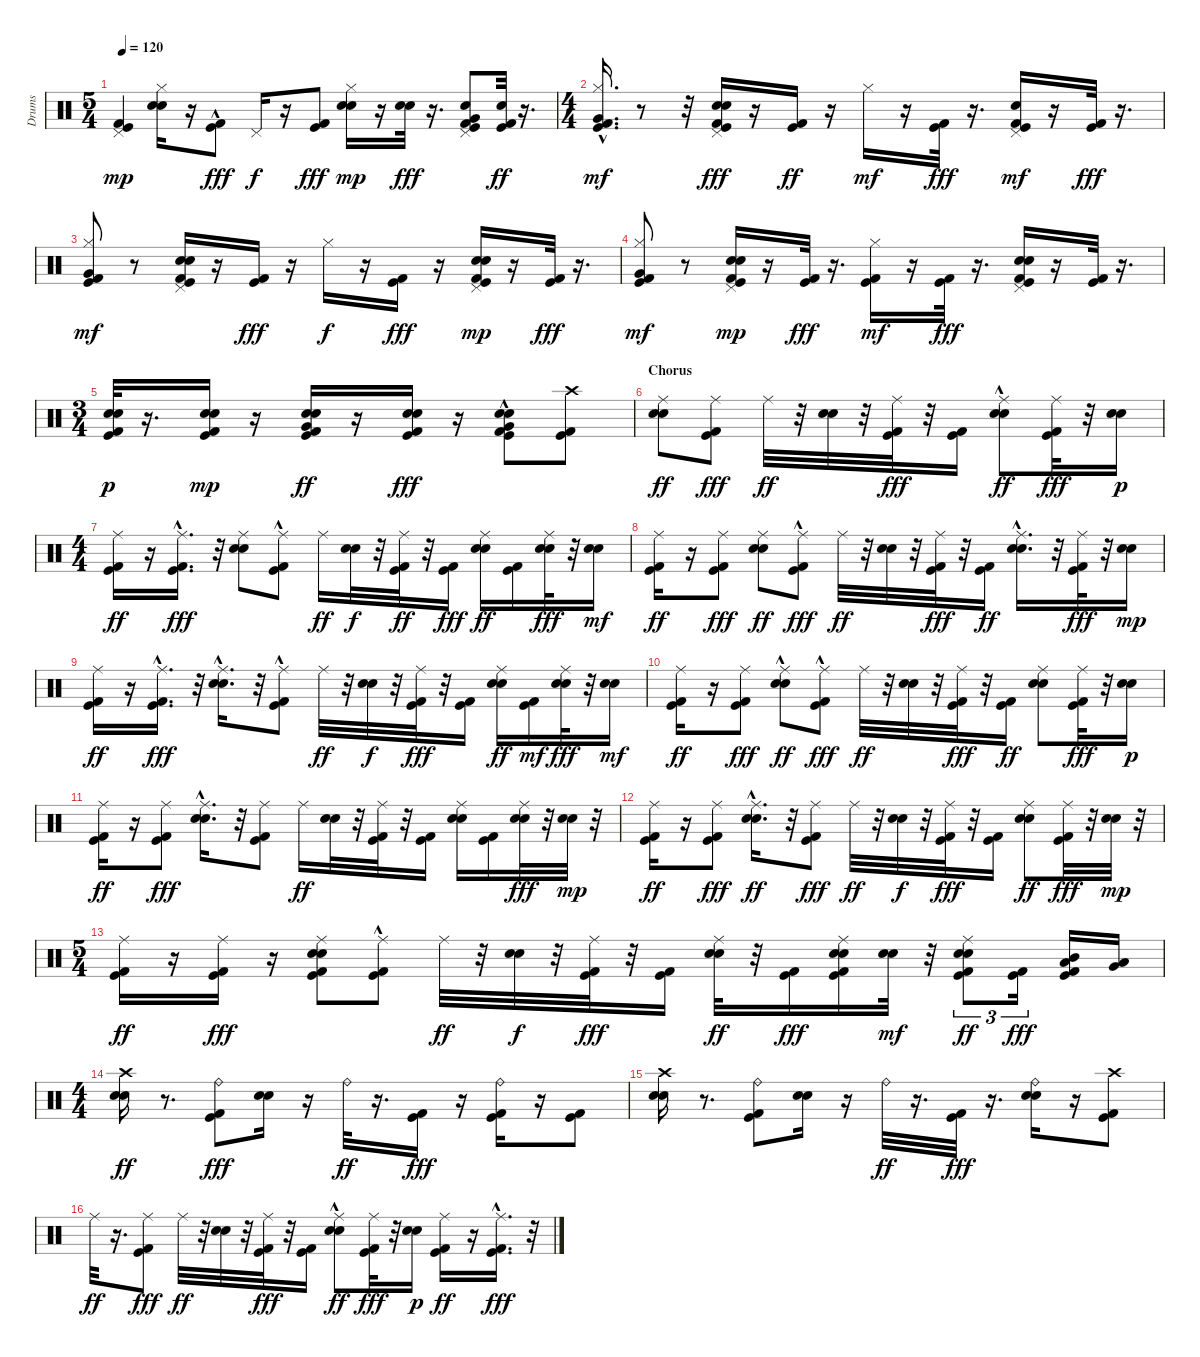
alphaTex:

\track ("Drums" "Drums") {instrument percussion}
\staff {score}
\articulation defaults
\ts (5 4)
\tempo 120
\clef neutral
\ks c
("Kick (hit) 2" "Kick (hit)" "Pedal Hi-Hat (hit)").4{dy mp} ("Snare (hit) 2" "Electric Snare (hit)" "Hi-Hat (closed)").16 r.16 ("Kick (hit) 2"{hac} "Kick (hit)").8{dy fff} "Pedal Hi-Hat (hit)".16{dy f} r.16 ("Kick (hit)" "Kick (hit) 2").8{dy fff} ("Snare (hit) 2" "Electric Snare (hit)" "Hi-Hat (closed)").16{dy mp} r.16 ("Snare (hit) 2" "Electric Snare (hit)").32{dy fff} r.16{d} ("Kick (hit)" "Kick (hit) 2" "Snare (hit) 2" "Very Low Tom (hit)" "Pedal Hi-Hat (hit)").8 ("Kick (hit) 2" "Kick (hit)" "Snare (hit) 2").32{dy ff} r.16{d} |
\ts (4 4)
("Very Low Tom (hit)" "Kick (hit) 2"{hac} "Kick (hit)"{hac} "Hi-Hat (closed)").16{d dy mf} r.8 r.32 ("Electric Snare (hit)" "Snare (hit) 2" "Kick (hit) 2" "Kick (hit)" "Pedal Hi-Hat (hit)").16{dy fff} r.16 ("Kick (hit)" "Kick (hit) 2").16{dy ff} r.16 "Hi-Hat (closed)".16{dy mf} r.16 ("Kick (hit) 2" "Kick (hit)").32{dy fff} r.16{d} ("Snare (hit) 2" "Kick (hit)" "Kick (hit) 2" "Pedal Hi-Hat (hit)").16{dy mf} r.16 ("Kick (hit)" "Kick (hit) 2").32{dy fff} r.16{d} |
("Very Low Tom (hit)" "Kick (hit)" "Kick (hit) 2" "Hi-Hat (closed)").8{dy mf} r.8 ("Electric Snare (hit)" "Snare (hit) 2" "Kick (hit)" "Kick (hit) 2" "Pedal Hi-Hat (hit)").16 r.16 ("Kick (hit)" "Kick (hit) 2").16{dy fff} r.16 "Hi-Hat (closed)".16{dy f} r.16 ("Kick (hit) 2" "Kick (hit)").16{dy fff} r.16 ("Snare (hit) 2" "Electric Snare (hit)" "Kick (hit) 2" "Kick (hit)" "Pedal Hi-Hat (hit)").16{dy mp} r.16 ("Kick (hit)" "Kick (hit) 2").32{dy fff} r.16{d} |
("Kick (hit) 2" "Kick (hit)" "Very Low Tom (hit)" "Hi-Hat (closed)").8{dy mf} r.8 ("Snare (hit) 2" "Electric Snare (hit)" "Kick (hit) 2" "Kick (hit)" "Pedal Hi-Hat (hit)").16{dy mp} r.16 ("Kick (hit)" "Kick (hit) 2").32{dy fff} r.16{d} ("Kick (hit)" "Kick (hit) 2" "Hi-Hat (closed)").16{dy mf} r.16 ("Kick (hit)" "Kick (hit) 2").32{dy fff} r.16{d} ("Pedal Hi-Hat (hit)" "Electric Snare (hit)" "Snare (hit) 2" "Kick (hit) 2" "Kick (hit)").16 r.16 ("Kick (hit) 2" "Kick (hit)").32 r.16{d} |
\ts (3 4)
("Electric Snare (hit)" "Kick (hit) 2" "Snare (hit) 2" "Kick (hit)").32{dy p} r.16{d} ("Electric Snare (hit)" "Snare (hit) 2" "Kick (hit)" "Kick (hit) 2").16{dy mp} r.16 ("Very Low Tom (hit)" "Electric Snare (hit)" "Snare (hit) 2" "Kick (hit)" "Kick (hit) 2").16{dy ff} r.16 ("Snare (hit) 2" "Electric Snare (hit)" "Kick (hit) 2" "Kick (hit)").16{dy fff} r.16 ("Very Low Tom (hit)" "Kick (hit) 2" "Kick (hit)" "Snare (hit) 2"{hac} "Electric Snare (hit)").8 ("Kick (hit) 2" "Kick (hit)" "Crash high (hit)").8 |
\section ("" "Chorus")
("Snare (hit) 2" "Electric Snare (hit)" "Ride (middle)").8{dy ff} ("Kick (hit) 2" "Kick (hit)" "Ride (middle)").8{dy fff} "Ride (middle)".32{dy ff} r.32 ("Snare (hit) 2" "Electric Snare (hit)").32 r.32 ("Kick (hit) 2" "Kick (hit)" "Ride (middle)").32{dy fff} r.32 ("Kick (hit) 2" "Kick (hit)").16 ("Electric Snare (hit)" "Snare (hit) 2"{hac} "Ride (middle)").8{dy ff} ("Kick (hit) 2" "Kick (hit)" "Ride (middle)").32{dy fff} r.32 ("Snare (hit) 2" "Electric Snare (hit)").16{dy p} |
\ts (4 4)
("Kick (hit) 2" "Kick (hit)" "Ride (middle)").16{dy ff} r.16 ("Kick (hit) 2"{hac} "Kick (hit)"{hac} "Ride (middle)").16{d dy fff} r.32 ("Snare (hit) 2" "Electric Snare (hit)" "Ride (middle)").8 ("Kick (hit) 2"{hac} "Kick (hit)"{hac} "Ride (middle)").8 "Ride (middle)".16{dy ff} ("Snare (hit) 2" "Electric Snare (hit)").32{dy f} r.32 ("Kick (hit)" "Kick (hit) 2" "Ride (middle)").32{dy ff} r.32 ("Kick (hit) 2" "Kick (hit)").16{dy fff} ("Electric Snare (hit)" "Snare (hit) 2" "Ride (middle)").16{dy ff} ("Kick (hit) 2" "Kick (hit)").16 ("Snare (hit) 2" "Electric Snare (hit)" "Ride (middle)").32{dy fff} r.32 ("Snare (hit) 2" "Electric Snare (hit)").16{dy mf} |
("Kick (hit) 2" "Kick (hit)" "Ride (middle)").16{dy ff} r.16 ("Kick (hit) 2" "Kick (hit)" "Ride (middle)").8{dy fff} ("Snare (hit) 2" "Electric Snare (hit)" "Ride (middle)").8{dy ff} ("Kick (hit)"{hac} "Kick (hit) 2"{hac} "Ride (middle)").8{dy fff} "Ride (middle)".32{dy ff} r.32 ("Snare (hit) 2" "Electric Snare (hit)").32 r.32 ("Kick (hit) 2" "Kick (hit)" "Ride (middle)").32{dy fff} r.32 ("Kick (hit) 2" "Kick (hit)").16{dy ff} ("Snare (hit) 2"{hac} "Electric Snare (hit)"{hac} "Ride (middle)").16{d} r.32 ("Kick (hit) 2" "Kick (hit)" "Ride (middle)").32{dy fff} r.32 ("Snare (hit) 2" "Electric Snare (hit)").16{dy mp} |
("Kick (hit) 2" "Kick (hit)" "Ride (middle)").16{dy ff} r.16 ("Kick (hit) 2"{hac} "Kick (hit)"{hac} "Ride (middle)").16{d dy fff} r.32 ("Snare (hit) 2"{hac} "Electric Snare (hit)"{hac} "Ride (middle)").16{d} r.32 ("Kick (hit)"{hac} "Kick (hit) 2"{hac} "Ride (middle)").8 "Ride (middle)".32{dy ff} r.32 ("Snare (hit) 2" "Electric Snare (hit)").32{dy f} r.32 ("Kick (hit)" "Kick (hit) 2" "Ride (middle)").32{dy fff} r.32 ("Kick (hit) 2" "Kick (hit)").16 ("Electric Snare (hit)" "Snare (hit) 2" "Ride (middle)").16{dy ff} ("Kick (hit) 2" "Kick (hit)").16{dy mf} ("Snare (hit) 2" "Electric Snare (hit)" "Ride (middle)").32{dy fff} r.32 ("Snare (hit) 2" "Electric Snare (hit)").16{dy mf} |
("Kick (hit) 2" "Kick (hit)" "Ride (middle)").16{dy ff} r.16 ("Kick (hit) 2" "Kick (hit)" "Ride (middle)").8{dy fff} ("Electric Snare (hit)" "Snare (hit) 2"{hac} "Ride (middle)").8{dy ff} ("Kick (hit) 2"{hac} "Kick (hit)"{hac} "Ride (middle)").8{dy fff} "Ride (middle)".32{dy ff} r.32 ("Snare (hit) 2" "Electric Snare (hit)").32 r.32 ("Kick (hit) 2" "Kick (hit)" "Ride (middle)").32{dy fff} r.32 ("Kick (hit) 2" "Kick (hit)").16{dy ff} ("Snare (hit) 2" "Electric Snare (hit)" "Ride (middle)").8 ("Kick (hit) 2" "Kick (hit)" "Ride (middle)").32{dy fff} r.32 ("Electric Snare (hit)" "Snare (hit) 2").16{dy p} |
("Kick (hit) 2" "Kick (hit)" "Ride (middle)").16{dy ff} r.16 ("Kick (hit) 2" "Kick (hit)" "Ride (middle)").8{dy fff} ("Snare (hit) 2"{hac} "Electric Snare (hit)"{hac} "Ride (middle)").16{d} r.32 ("Kick (hit) 2" "Kick (hit)" "Ride (middle)").8 "Ride (middle)".16{dy ff} ("Snare (hit) 2" "Electric Snare (hit)").32 r.32 ("Kick (hit) 2" "Kick (hit)" "Ride (middle)").32 r.32 ("Kick (hit) 2" "Kick (hit)").16 ("Electric Snare (hit)" "Snare (hit) 2" "Ride (middle)").16 ("Kick (hit) 2" "Kick (hit)").16 ("Snare (hit) 2" "Electric Snare (hit)" "Ride (middle)").32{dy fff} r.32 ("Snare (hit) 2" "Electric Snare (hit)").32{dy mp} r.32 |
("Kick (hit) 2" "Kick (hit)" "Ride (middle)").16{dy ff} r.16 ("Kick (hit) 2" "Kick (hit)" "Ride (middle)").8{dy fff} ("Snare (hit) 2"{hac} "Electric Snare (hit)"{hac} "Ride (middle)").16{d dy ff} r.32 ("Kick (hit)" "Kick (hit) 2" "Ride (middle)").8{dy fff} "Ride (middle)".32{dy ff} r.32 ("Snare (hit) 2" "Electric Snare (hit)").32{dy f} r.32 ("Kick (hit) 2" "Kick (hit)" "Ride (middle)").32{dy fff} r.32 ("Kick (hit) 2" "Kick (hit)").16 ("Snare (hit) 2" "Electric Snare (hit)" "Ride (middle)").8{dy ff} ("Kick (hit) 2" "Kick (hit)" "Ride (middle)").32{dy fff} r.32 ("Snare (hit) 2" "Electric Snare (hit)").32{dy mp} r.32 |
\ts (5 4)
("Kick (hit) 2" "Kick (hit)" "Ride (middle)").16{dy ff} r.16 ("Kick (hit)" "Kick (hit) 2" "Ride (middle)").16{dy fff} r.16 ("Kick (hit) 2" "Kick (hit)" "Snare (hit) 2" "Electric Snare (hit)" "Ride (middle)").8 ("Kick (hit) 2"{hac} "Kick (hit)"{hac} "Ride (middle)").8 "Ride (middle)".32{dy ff} r.32 ("Snare (hit) 2" "Electric Snare (hit)").32{dy f} r.32 ("Kick (hit) 2" "Kick (hit)" "Ride (middle)").32{dy fff} r.32 ("Kick (hit)" "Kick (hit) 2").16 ("Snare (hit) 2" "Electric Snare (hit)" "Ride (middle)").32{dy ff} r.32 ("Kick (hit) 2" "Kick (hit)").16{dy fff} ("Kick (hit)" "Kick (hit) 2" "Electric Snare (hit)" "Snare (hit) 2" "Ride (middle)").16 ("Snare (hit) 2" "Electric Snare (hit)").32{dy mf} r.32 ("Electric Snare (hit)" "Snare (hit) 2" "Kick (hit)" "Kick (hit) 2" "Ride (middle)").8{tu (3 2) dy ff} ("Kick (hit)" "Kick (hit) 2").16{tu (3 2) dy fff} ("Mid Tom (hit)" "Low Tom (hit)" "Kick (hit) 2" "Kick (hit)").16 ("Low Floor Tom (hit)" "Very Low Tom (hit)").16 |
\ts (4 4)
("Electric Snare (hit)" "Crash high (hit)" "Snare (hit) 2").16{dy ff} r.8{d} ("Ride (bell)" "Kick (hit) 2" "Kick (hit)").8{dy fff} ("Electric Snare (hit)" "Snare (hit) 2").16 r.16 "Ride (bell)".32{dy ff} r.16{d} ("Kick (hit) 2" "Kick (hit)").16{dy fff} r.16 ("Ride (bell)" "Kick (hit) 2" "Kick (hit)").16 r.16 ("Kick (hit) 2" "Kick (hit)").8 |
("Crash high (hit)" "Electric Snare (hit)" "Snare (hit) 2").16 r.8{d} ("Ride (bell)" "Kick (hit) 2" "Kick (hit)").8 ("Electric Snare (hit)" "Snare (hit) 2").16 r.16 "Ride (bell)".32{dy ff} r.16{d} ("Kick (hit)" "Kick (hit) 2").32{dy fff} r.16{d} ("Ride (bell)" "Snare (hit) 2" "Electric Snare (hit)").16 r.16 ("Kick (hit) 2" "Kick (hit)" "Crash high (hit)").8 |
"Ride (middle)".32{dy ff} r.16{d} ("Kick (hit) 2" "Kick (hit)" "Ride (middle)").8{dy fff} "Ride (middle)".32{dy ff} r.32 ("Snare (hit) 2" "Electric Snare (hit)").32 r.32 ("Kick (hit) 2" "Kick (hit)" "Ride (middle)").32{dy fff} r.32 ("Kick (hit) 2" "Kick (hit)").16 ("Electric Snare (hit)" "Snare (hit) 2"{hac} "Ride (middle)").8{dy ff} ("Kick (hit) 2" "Kick (hit)" "Ride (middle)").32{dy fff} r.32 ("Snare (hit) 2" "Electric Snare (hit)").16{dy p} ("Kick (hit) 2" "Kick (hit)" "Ride (middle)").16{dy ff} r.16 ("Kick (hit) 2"{hac} "Kick (hit)"{hac} "Ride (middle)").16{d dy fff} r.32
